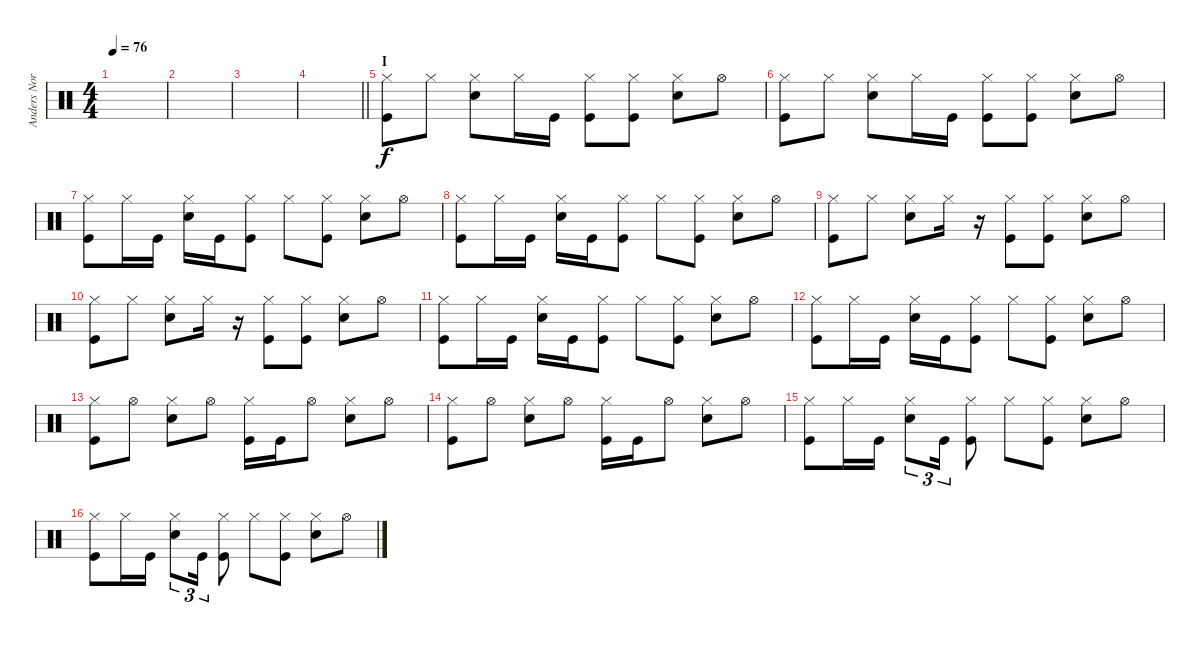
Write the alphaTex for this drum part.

\track ("Anders Nordin - Drums" "Anders Nor") {instrument percussion}
\staff {score}
\articulation defaults
\ts (4 4)
\tempo 76
\clef neutral
\ks c
|
|
|
\barLineRight lightlight
|
\section ("" "I")
("Hi-Hat (closed)" "Kick (hit)").8 "Hi-Hat (closed)".8 ("Hi-Hat (closed)" "Snare (hit) 2").8 "Hi-Hat (closed)".16 "Kick (hit)".16 ("Hi-Hat (closed)" "Kick (hit)").8 ("Hi-Hat (closed)" "Kick (hit)").8 ("Hi-Hat (closed)" "Snare (hit) 2").8 "Hi-Hat (open)".8 |
("Hi-Hat (closed)" "Kick (hit)").8 "Hi-Hat (closed)".8 ("Hi-Hat (closed)" "Snare (hit) 2").8 "Hi-Hat (closed)".16 "Kick (hit)".16 ("Hi-Hat (closed)" "Kick (hit)").8 ("Hi-Hat (closed)" "Kick (hit)").8 ("Hi-Hat (closed)" "Snare (hit) 2").8 "Hi-Hat (open)".8 |
("Hi-Hat (closed)" "Kick (hit)").8 "Hi-Hat (closed)".16 "Kick (hit)".16 ("Hi-Hat (closed)" "Snare (hit) 2").16 "Kick (hit)".16 ("Kick (hit)" "Hi-Hat (closed)").8 "Hi-Hat (closed)".8 ("Hi-Hat (closed)" "Kick (hit)").8 ("Hi-Hat (closed)" "Snare (hit) 2").8 "Hi-Hat (open)".8 |
("Hi-Hat (closed)" "Kick (hit)").8 "Hi-Hat (closed)".16 "Kick (hit)".16 ("Hi-Hat (closed)" "Snare (hit) 2").16 "Kick (hit)".16 ("Kick (hit)" "Hi-Hat (closed)").8 "Hi-Hat (closed)".8 ("Hi-Hat (closed)" "Kick (hit)").8 ("Hi-Hat (closed)" "Snare (hit) 2").8 "Hi-Hat (open)".8 |
("Hi-Hat (closed)" "Kick (hit)").8 "Hi-Hat (closed)".8 ("Hi-Hat (closed)" "Snare (hit) 2").8 "Hi-Hat (closed)".16 r.16 ("Hi-Hat (closed)" "Kick (hit)").8 ("Hi-Hat (closed)" "Kick (hit)").8 ("Hi-Hat (closed)" "Snare (hit) 2").8 "Hi-Hat (open)".8 |
("Hi-Hat (closed)" "Kick (hit)").8 "Hi-Hat (closed)".8 ("Hi-Hat (closed)" "Snare (hit) 2").8 "Hi-Hat (closed)".16 r.16 ("Hi-Hat (closed)" "Kick (hit)").8 ("Hi-Hat (closed)" "Kick (hit)").8 ("Hi-Hat (closed)" "Snare (hit) 2").8 "Hi-Hat (open)".8 |
("Hi-Hat (closed)" "Kick (hit)").8 "Hi-Hat (closed)".16 "Kick (hit)".16 ("Hi-Hat (closed)" "Snare (hit) 2").16 "Kick (hit)".16 ("Kick (hit)" "Hi-Hat (closed)").8 "Hi-Hat (closed)".8 ("Hi-Hat (closed)" "Kick (hit)").8 ("Hi-Hat (closed)" "Snare (hit) 2").8 "Hi-Hat (open)".8 |
("Hi-Hat (closed)" "Kick (hit)").8 "Hi-Hat (closed)".16 "Kick (hit)".16 ("Hi-Hat (closed)" "Snare (hit) 2").16 "Kick (hit)".16 ("Kick (hit)" "Hi-Hat (closed)").8 "Hi-Hat (closed)".8 ("Hi-Hat (closed)" "Kick (hit)").8 ("Hi-Hat (closed)" "Snare (hit) 2").8 "Hi-Hat (open)".8 |
("Hi-Hat (closed)" "Kick (hit)").8 "Hi-Hat (open)".8 ("Hi-Hat (closed)" "Snare (hit) 2").8 "Hi-Hat (open)".8 ("Hi-Hat (closed)" "Kick (hit)").16 "Kick (hit)".16 "Hi-Hat (open)".8 ("Hi-Hat (closed)" "Snare (hit) 2").8 "Hi-Hat (open)".8 |
("Hi-Hat (closed)" "Kick (hit)").8 "Hi-Hat (open)".8 ("Hi-Hat (closed)" "Snare (hit) 2").8 "Hi-Hat (open)".8 ("Hi-Hat (closed)" "Kick (hit)").16 "Kick (hit)".16 "Hi-Hat (open)".8 ("Hi-Hat (closed)" "Snare (hit) 2").8 "Hi-Hat (open)".8 |
("Hi-Hat (closed)" "Kick (hit)").8 "Hi-Hat (closed)".16 "Kick (hit)".16 ("Hi-Hat (closed)" "Snare (hit) 2").8{tu (3 2)} "Kick (hit)".16{tu (3 2)} ("Kick (hit)" "Hi-Hat (closed)").8 "Hi-Hat (closed)".8 ("Hi-Hat (closed)" "Kick (hit)").8 ("Hi-Hat (closed)" "Snare (hit) 2").8 "Hi-Hat (open)".8 |
("Hi-Hat (closed)" "Kick (hit)").8 "Hi-Hat (closed)".16 "Kick (hit)".16 ("Hi-Hat (closed)" "Snare (hit) 2").8{tu (3 2)} "Kick (hit)".16{tu (3 2)} ("Kick (hit)" "Hi-Hat (closed)").8 "Hi-Hat (closed)".8 ("Hi-Hat (closed)" "Kick (hit)").8 ("Hi-Hat (closed)" "Snare (hit) 2").8 "Hi-Hat (open)".8
